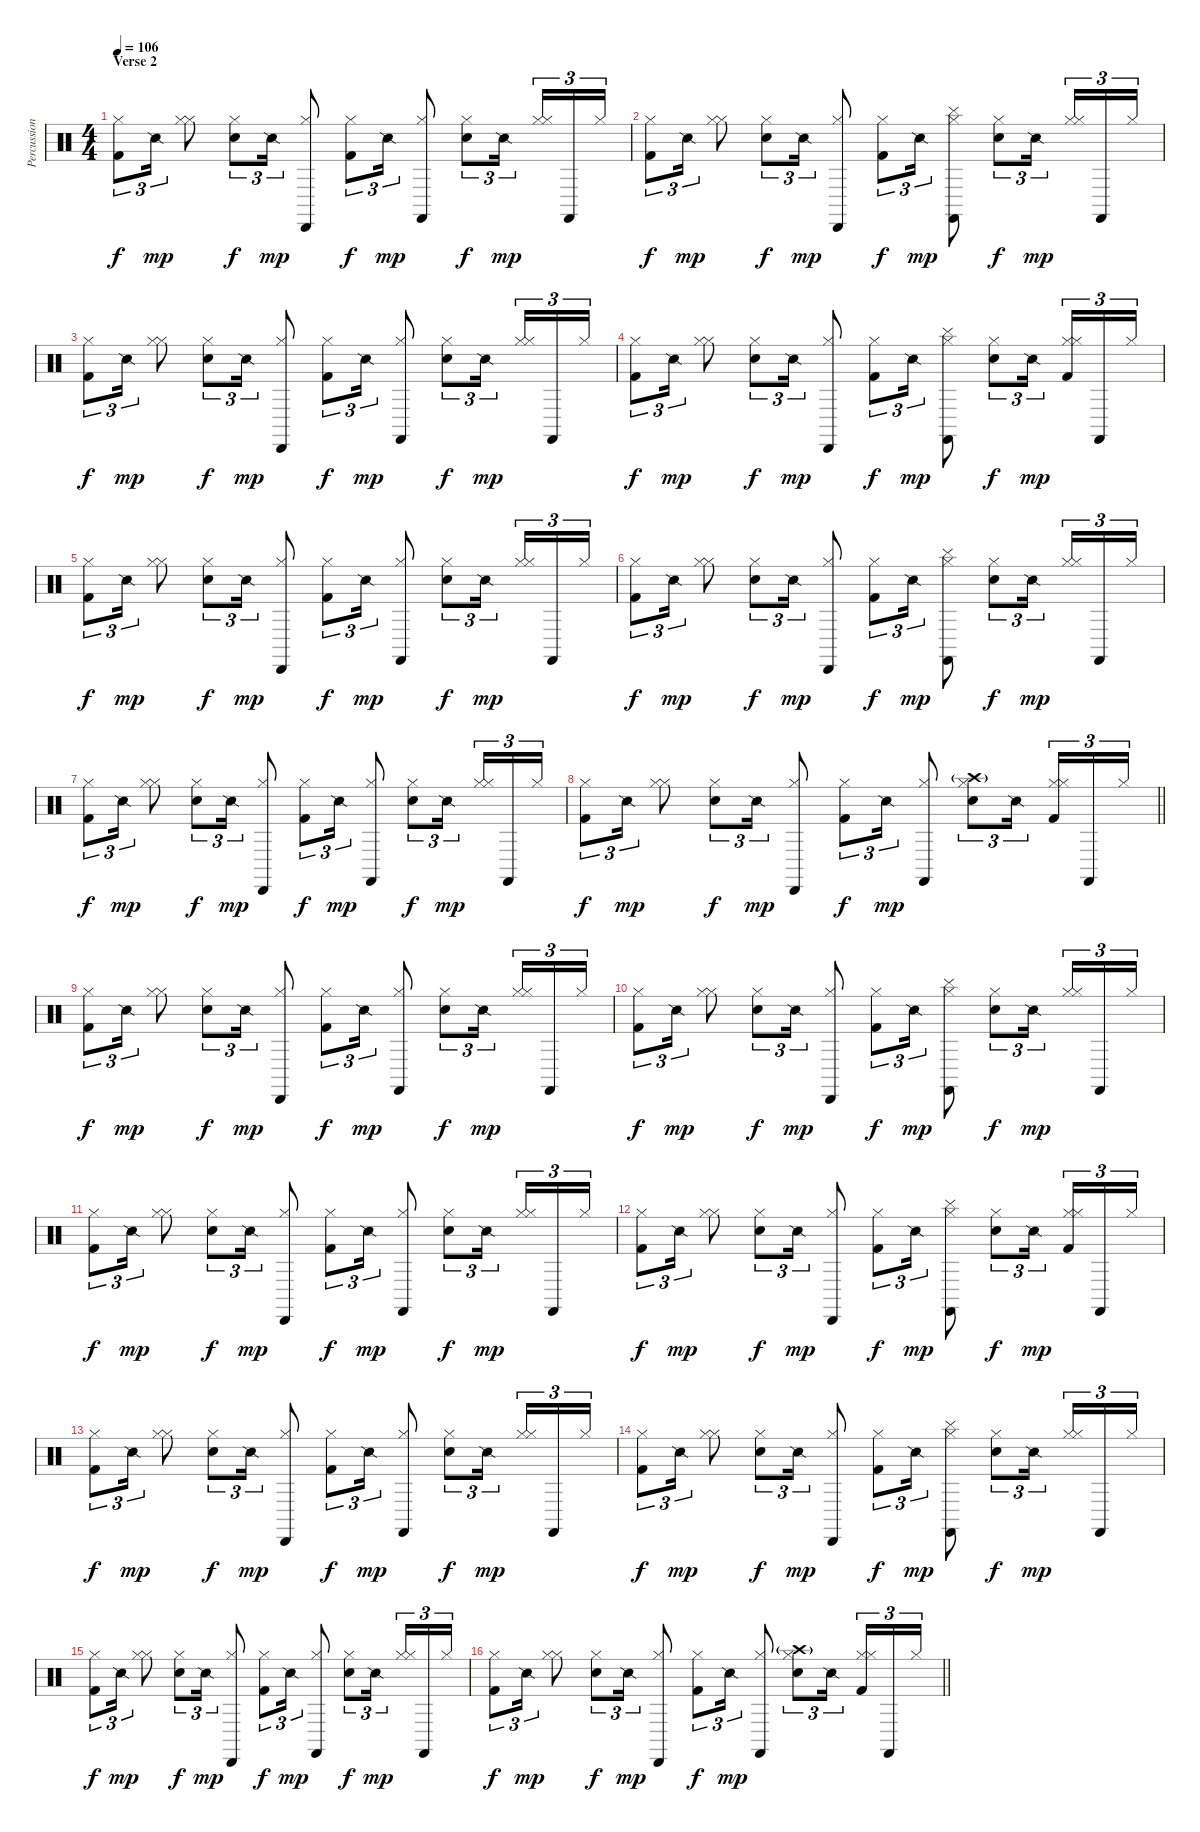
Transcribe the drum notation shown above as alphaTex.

\track ("Percussion" "Percussion") {instrument percussion}
\staff {score}
\articulation defaults
\ts (4 4)
\section ("" "Verse 2")
\tempo 106
\clef neutral
\ks c
("Hi-Hat (closed)" "Kick (hit) 2").8{tu (3 2) dy f} "Snare (side stick) 2".16{tu (3 2) dy mp} ("Hi-Hat (closed)" "Hi-Hat (closed)").8 ("Hi-Hat (closed)" "Electric Snare (hit)").8{tu (3 2) dy f} "Snare (side stick) 2".16{tu (3 2) dy mp} ("Hi-Hat (closed)" "Cabasa (hit)").8 ("Hi-Hat (closed)" "Kick (hit) 2").8{tu (3 2) dy f} "Snare (side stick) 2".16{tu (3 2) dy mp} ("Hi-Hat (closed)" "Castanets (hit)").8 ("Hi-Hat (closed)" "Electric Snare (hit)").8{tu (3 2) dy f} "Snare (side stick) 2".16{tu (3 2) dy mp beam splitsecondary} ("Hi-Hat (closed)" "Hi-Hat (closed)").16{tu (3 2)} "Castanets (hit)".16{tu (3 2)} "Hi-Hat (closed)".16{tu (3 2)} |
("Hi-Hat (closed)" "Kick (hit) 2").8{tu (3 2) dy f} "Snare (side stick) 2".16{tu (3 2) dy mp} ("Hi-Hat (closed)" "Hi-Hat (closed)").8 ("Hi-Hat (closed)" "Electric Snare (hit)").8{tu (3 2) dy f} "Snare (side stick) 2".16{tu (3 2) dy mp} ("Hi-Hat (closed)" "Cabasa (hit)").8 ("Hi-Hat (closed)" "Kick (hit) 2").8{tu (3 2) dy f} "Snare (side stick) 2".16{tu (3 2) dy mp} ("Hi-Hat (closed)" "Castanets (hit)" "Cymbal (hit)").8 ("Hi-Hat (closed)" "Electric Snare (hit)").8{tu (3 2) dy f} "Snare (side stick) 2".16{tu (3 2) dy mp beam splitsecondary} ("Hi-Hat (closed)" "Hi-Hat (closed)").16{tu (3 2)} "Castanets (hit)".16{tu (3 2)} "Hi-Hat (closed)".16{tu (3 2)} |
("Hi-Hat (closed)" "Kick (hit) 2").8{tu (3 2) dy f} "Snare (side stick) 2".16{tu (3 2) dy mp} ("Hi-Hat (closed)" "Hi-Hat (closed)").8 ("Hi-Hat (closed)" "Electric Snare (hit)").8{tu (3 2) dy f} "Snare (side stick) 2".16{tu (3 2) dy mp} ("Hi-Hat (closed)" "Cabasa (hit)").8 ("Hi-Hat (closed)" "Kick (hit) 2").8{tu (3 2) dy f} "Snare (side stick) 2".16{tu (3 2) dy mp} ("Hi-Hat (closed)" "Castanets (hit)").8 ("Hi-Hat (closed)" "Electric Snare (hit)").8{tu (3 2) dy f} "Snare (side stick) 2".16{tu (3 2) dy mp beam splitsecondary} ("Hi-Hat (closed)" "Hi-Hat (closed)").16{tu (3 2)} "Castanets (hit)".16{tu (3 2)} "Hi-Hat (closed)".16{tu (3 2)} |
("Hi-Hat (closed)" "Kick (hit) 2").8{tu (3 2) dy f} "Snare (side stick) 2".16{tu (3 2) dy mp} ("Hi-Hat (closed)" "Hi-Hat (closed)").8 ("Hi-Hat (closed)" "Electric Snare (hit)").8{tu (3 2) dy f} "Snare (side stick) 2".16{tu (3 2) dy mp} ("Hi-Hat (closed)" "Cabasa (hit)").8 ("Hi-Hat (closed)" "Kick (hit) 2").8{tu (3 2) dy f} "Snare (side stick) 2".16{tu (3 2) dy mp} ("Hi-Hat (closed)" "Castanets (hit)" "Cymbal (hit)").8 ("Hi-Hat (closed)" "Electric Snare (hit)").8{tu (3 2) dy f} "Snare (side stick) 2".16{tu (3 2) dy mp beam splitsecondary} ("Hi-Hat (closed)" "Hi-Hat (closed)" "Kick (hit) 2").16{tu (3 2)} "Castanets (hit)".16{tu (3 2)} "Hi-Hat (closed)".16{tu (3 2)} |
("Hi-Hat (closed)" "Kick (hit) 2").8{tu (3 2) dy f} "Snare (side stick) 2".16{tu (3 2) dy mp} ("Hi-Hat (closed)" "Hi-Hat (closed)").8 ("Hi-Hat (closed)" "Electric Snare (hit)").8{tu (3 2) dy f} "Snare (side stick) 2".16{tu (3 2) dy mp} ("Hi-Hat (closed)" "Cabasa (hit)").8 ("Hi-Hat (closed)" "Kick (hit) 2").8{tu (3 2) dy f} "Snare (side stick) 2".16{tu (3 2) dy mp} ("Hi-Hat (closed)" "Castanets (hit)").8 ("Hi-Hat (closed)" "Electric Snare (hit)").8{tu (3 2) dy f} "Snare (side stick) 2".16{tu (3 2) dy mp beam splitsecondary} ("Hi-Hat (closed)" "Hi-Hat (closed)").16{tu (3 2)} "Castanets (hit)".16{tu (3 2)} "Hi-Hat (closed)".16{tu (3 2)} |
("Hi-Hat (closed)" "Kick (hit) 2").8{tu (3 2) dy f} "Snare (side stick) 2".16{tu (3 2) dy mp} ("Hi-Hat (closed)" "Hi-Hat (closed)").8 ("Hi-Hat (closed)" "Electric Snare (hit)").8{tu (3 2) dy f} "Snare (side stick) 2".16{tu (3 2) dy mp} ("Hi-Hat (closed)" "Cabasa (hit)").8 ("Hi-Hat (closed)" "Kick (hit) 2").8{tu (3 2) dy f} "Snare (side stick) 2".16{tu (3 2) dy mp} ("Hi-Hat (closed)" "Castanets (hit)" "Cymbal (hit)").8 ("Hi-Hat (closed)" "Electric Snare (hit)").8{tu (3 2) dy f} "Snare (side stick) 2".16{tu (3 2) dy mp beam splitsecondary} ("Hi-Hat (closed)" "Hi-Hat (closed)").16{tu (3 2)} "Castanets (hit)".16{tu (3 2)} "Hi-Hat (closed)".16{tu (3 2)} |
("Hi-Hat (closed)" "Kick (hit) 2").8{tu (3 2) dy f} "Snare (side stick) 2".16{tu (3 2) dy mp} ("Hi-Hat (closed)" "Hi-Hat (closed)").8 ("Hi-Hat (closed)" "Electric Snare (hit)").8{tu (3 2) dy f} "Snare (side stick) 2".16{tu (3 2) dy mp} ("Hi-Hat (closed)" "Cabasa (hit)").8 ("Hi-Hat (closed)" "Kick (hit) 2").8{tu (3 2) dy f} "Snare (side stick) 2".16{tu (3 2) dy mp} ("Hi-Hat (closed)" "Castanets (hit)").8 ("Hi-Hat (closed)" "Electric Snare (hit)").8{tu (3 2) dy f} "Snare (side stick) 2".16{tu (3 2) dy mp beam splitsecondary} ("Hi-Hat (closed)" "Hi-Hat (closed)").16{tu (3 2)} "Castanets (hit)".16{tu (3 2)} "Hi-Hat (closed)".16{tu (3 2)} |
\barLineRight lightlight
("Hi-Hat (closed)" "Kick (hit) 2").8{tu (3 2) dy f} "Snare (side stick) 2".16{tu (3 2) dy mp} ("Hi-Hat (closed)" "Hi-Hat (closed)").8 ("Hi-Hat (closed)" "Electric Snare (hit)").8{tu (3 2) dy f} "Snare (side stick) 2".16{tu (3 2) dy mp} ("Hi-Hat (closed)" "Cabasa (hit)").8 ("Hi-Hat (closed)" "Kick (hit) 2").8{tu (3 2) dy f} "Snare (side stick) 2".16{tu (3 2) dy mp} ("Hi-Hat (closed)" "Castanets (hit)").8 ("Crash high (hit)"{g} "Hi-Hat (closed)" "Electric Snare (hit)").8{tu (3 2)} "Snare (side stick) 2".16{tu (3 2) beam splitsecondary} ("Hi-Hat (closed)" "Hi-Hat (closed)" "Kick (hit) 2").16{tu (3 2)} "Castanets (hit)".16{tu (3 2)} "Hi-Hat (closed)".16{tu (3 2)} |
\section ("" "")
("Hi-Hat (closed)" "Kick (hit) 2").8{tu (3 2) dy f} "Snare (side stick) 2".16{tu (3 2) dy mp} ("Hi-Hat (closed)" "Hi-Hat (closed)").8 ("Hi-Hat (closed)" "Electric Snare (hit)").8{tu (3 2) dy f} "Snare (side stick) 2".16{tu (3 2) dy mp} ("Hi-Hat (closed)" "Cabasa (hit)").8 ("Hi-Hat (closed)" "Kick (hit) 2").8{tu (3 2) dy f} "Snare (side stick) 2".16{tu (3 2) dy mp} ("Hi-Hat (closed)" "Castanets (hit)").8 ("Hi-Hat (closed)" "Electric Snare (hit)").8{tu (3 2) dy f} "Snare (side stick) 2".16{tu (3 2) dy mp beam splitsecondary} ("Hi-Hat (closed)" "Hi-Hat (closed)").16{tu (3 2)} "Castanets (hit)".16{tu (3 2)} "Hi-Hat (closed)".16{tu (3 2)} |
("Hi-Hat (closed)" "Kick (hit) 2").8{tu (3 2) dy f} "Snare (side stick) 2".16{tu (3 2) dy mp} ("Hi-Hat (closed)" "Hi-Hat (closed)").8 ("Hi-Hat (closed)" "Electric Snare (hit)").8{tu (3 2) dy f} "Snare (side stick) 2".16{tu (3 2) dy mp} ("Hi-Hat (closed)" "Cabasa (hit)").8 ("Hi-Hat (closed)" "Kick (hit) 2").8{tu (3 2) dy f} "Snare (side stick) 2".16{tu (3 2) dy mp} ("Hi-Hat (closed)" "Castanets (hit)" "Cymbal (hit)").8 ("Hi-Hat (closed)" "Electric Snare (hit)").8{tu (3 2) dy f} "Snare (side stick) 2".16{tu (3 2) dy mp beam splitsecondary} ("Hi-Hat (closed)" "Hi-Hat (closed)").16{tu (3 2)} "Castanets (hit)".16{tu (3 2)} "Hi-Hat (closed)".16{tu (3 2)} |
("Hi-Hat (closed)" "Kick (hit) 2").8{tu (3 2) dy f} "Snare (side stick) 2".16{tu (3 2) dy mp} ("Hi-Hat (closed)" "Hi-Hat (closed)").8 ("Hi-Hat (closed)" "Electric Snare (hit)").8{tu (3 2) dy f} "Snare (side stick) 2".16{tu (3 2) dy mp} ("Hi-Hat (closed)" "Cabasa (hit)").8 ("Hi-Hat (closed)" "Kick (hit) 2").8{tu (3 2) dy f} "Snare (side stick) 2".16{tu (3 2) dy mp} ("Hi-Hat (closed)" "Castanets (hit)").8 ("Hi-Hat (closed)" "Electric Snare (hit)").8{tu (3 2) dy f} "Snare (side stick) 2".16{tu (3 2) dy mp beam splitsecondary} ("Hi-Hat (closed)" "Hi-Hat (closed)").16{tu (3 2)} "Castanets (hit)".16{tu (3 2)} "Hi-Hat (closed)".16{tu (3 2)} |
("Hi-Hat (closed)" "Kick (hit) 2").8{tu (3 2) dy f} "Snare (side stick) 2".16{tu (3 2) dy mp} ("Hi-Hat (closed)" "Hi-Hat (closed)").8 ("Hi-Hat (closed)" "Electric Snare (hit)").8{tu (3 2) dy f} "Snare (side stick) 2".16{tu (3 2) dy mp} ("Hi-Hat (closed)" "Cabasa (hit)").8 ("Hi-Hat (closed)" "Kick (hit) 2").8{tu (3 2) dy f} "Snare (side stick) 2".16{tu (3 2) dy mp} ("Hi-Hat (closed)" "Castanets (hit)" "Cymbal (hit)").8 ("Hi-Hat (closed)" "Electric Snare (hit)").8{tu (3 2) dy f} "Snare (side stick) 2".16{tu (3 2) dy mp beam splitsecondary} ("Hi-Hat (closed)" "Hi-Hat (closed)" "Kick (hit) 2").16{tu (3 2)} "Castanets (hit)".16{tu (3 2)} "Hi-Hat (closed)".16{tu (3 2)} |
("Hi-Hat (closed)" "Kick (hit) 2").8{tu (3 2) dy f} "Snare (side stick) 2".16{tu (3 2) dy mp} ("Hi-Hat (closed)" "Hi-Hat (closed)").8 ("Hi-Hat (closed)" "Electric Snare (hit)").8{tu (3 2) dy f} "Snare (side stick) 2".16{tu (3 2) dy mp} ("Hi-Hat (closed)" "Cabasa (hit)").8 ("Hi-Hat (closed)" "Kick (hit) 2").8{tu (3 2) dy f} "Snare (side stick) 2".16{tu (3 2) dy mp} ("Hi-Hat (closed)" "Castanets (hit)").8 ("Hi-Hat (closed)" "Electric Snare (hit)").8{tu (3 2) dy f} "Snare (side stick) 2".16{tu (3 2) dy mp beam splitsecondary} ("Hi-Hat (closed)" "Hi-Hat (closed)").16{tu (3 2)} "Castanets (hit)".16{tu (3 2)} "Hi-Hat (closed)".16{tu (3 2)} |
("Hi-Hat (closed)" "Kick (hit) 2").8{tu (3 2) dy f} "Snare (side stick) 2".16{tu (3 2) dy mp} ("Hi-Hat (closed)" "Hi-Hat (closed)").8 ("Hi-Hat (closed)" "Electric Snare (hit)").8{tu (3 2) dy f} "Snare (side stick) 2".16{tu (3 2) dy mp} ("Hi-Hat (closed)" "Cabasa (hit)").8 ("Hi-Hat (closed)" "Kick (hit) 2").8{tu (3 2) dy f} "Snare (side stick) 2".16{tu (3 2) dy mp} ("Hi-Hat (closed)" "Castanets (hit)" "Cymbal (hit)").8 ("Hi-Hat (closed)" "Electric Snare (hit)").8{tu (3 2) dy f} "Snare (side stick) 2".16{tu (3 2) dy mp beam splitsecondary} ("Hi-Hat (closed)" "Hi-Hat (closed)").16{tu (3 2)} "Castanets (hit)".16{tu (3 2)} "Hi-Hat (closed)".16{tu (3 2)} |
("Hi-Hat (closed)" "Kick (hit) 2").8{tu (3 2) dy f} "Snare (side stick) 2".16{tu (3 2) dy mp} ("Hi-Hat (closed)" "Hi-Hat (closed)").8 ("Hi-Hat (closed)" "Electric Snare (hit)").8{tu (3 2) dy f} "Snare (side stick) 2".16{tu (3 2) dy mp} ("Hi-Hat (closed)" "Cabasa (hit)").8 ("Hi-Hat (closed)" "Kick (hit) 2").8{tu (3 2) dy f} "Snare (side stick) 2".16{tu (3 2) dy mp} ("Hi-Hat (closed)" "Castanets (hit)").8 ("Hi-Hat (closed)" "Electric Snare (hit)").8{tu (3 2) dy f} "Snare (side stick) 2".16{tu (3 2) dy mp beam splitsecondary} ("Hi-Hat (closed)" "Hi-Hat (closed)").16{tu (3 2)} "Castanets (hit)".16{tu (3 2)} "Hi-Hat (closed)".16{tu (3 2)} |
\barLineRight lightlight
("Hi-Hat (closed)" "Kick (hit) 2").8{tu (3 2) dy f} "Snare (side stick) 2".16{tu (3 2) dy mp} ("Hi-Hat (closed)" "Hi-Hat (closed)").8 ("Hi-Hat (closed)" "Electric Snare (hit)").8{tu (3 2) dy f} "Snare (side stick) 2".16{tu (3 2) dy mp} ("Hi-Hat (closed)" "Cabasa (hit)").8 ("Hi-Hat (closed)" "Kick (hit) 2").8{tu (3 2) dy f} "Snare (side stick) 2".16{tu (3 2) dy mp} ("Hi-Hat (closed)" "Castanets (hit)").8 ("Crash high (hit)"{g} "Hi-Hat (closed)" "Electric Snare (hit)").8{tu (3 2)} "Snare (side stick) 2".16{tu (3 2) beam splitsecondary} ("Hi-Hat (closed)" "Hi-Hat (closed)" "Kick (hit) 2").16{tu (3 2)} "Castanets (hit)".16{tu (3 2)} "Hi-Hat (closed)".16{tu (3 2)}
